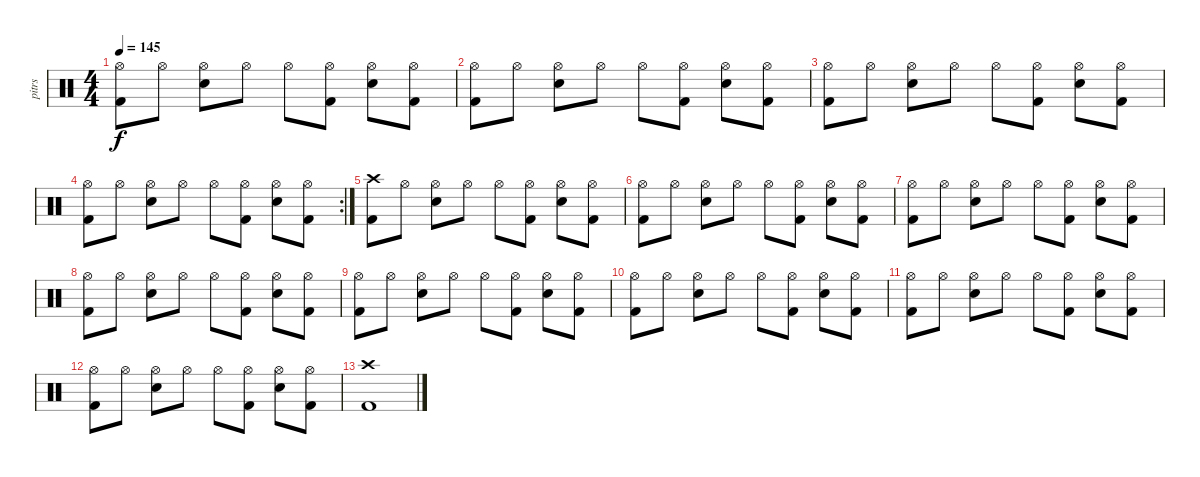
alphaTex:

\track ("pitrs" "pitrs") {instrument percussion}
\staff {score}
\articulation defaults
\ts (4 4)
\tempo 145
\clef neutral
\ks c
("Hi-Hat (open)" "Kick (hit) 2").8{dy f} "Hi-Hat (open)".8 ("Hi-Hat (open)" "Snare (hit) 2").8 "Hi-Hat (open)".8 "Hi-Hat (open)".8 ("Hi-Hat (open)" "Kick (hit) 2").8 ("Hi-Hat (open)" "Snare (hit) 2").8 ("Hi-Hat (open)" "Kick (hit) 2").8 |
("Hi-Hat (open)" "Kick (hit) 2").8 "Hi-Hat (open)".8 ("Hi-Hat (open)" "Snare (hit) 2").8 "Hi-Hat (open)".8 "Hi-Hat (open)".8 ("Hi-Hat (open)" "Kick (hit) 2").8 ("Hi-Hat (open)" "Snare (hit) 2").8 ("Hi-Hat (open)" "Kick (hit) 2").8 |
("Hi-Hat (open)" "Kick (hit) 2").8 "Hi-Hat (open)".8 ("Hi-Hat (open)" "Snare (hit) 2").8 "Hi-Hat (open)".8 "Hi-Hat (open)".8 ("Hi-Hat (open)" "Kick (hit) 2").8 ("Hi-Hat (open)" "Snare (hit) 2").8 ("Hi-Hat (open)" "Kick (hit) 2").8 |
\rc 2
("Hi-Hat (open)" "Kick (hit) 2").8 "Hi-Hat (open)".8 ("Hi-Hat (open)" "Snare (hit) 2").8 "Hi-Hat (open)".8 "Hi-Hat (open)".8 ("Hi-Hat (open)" "Kick (hit) 2").8 ("Hi-Hat (open)" "Snare (hit) 2").8 ("Hi-Hat (open)" "Kick (hit) 2").8 |
("Crash high (hit)" "Kick (hit) 2").8 "Hi-Hat (open)".8 ("Hi-Hat (open)" "Snare (hit) 2").8 "Hi-Hat (open)".8 "Hi-Hat (open)".8 ("Hi-Hat (open)" "Kick (hit) 2").8 ("Hi-Hat (open)" "Snare (hit) 2").8 ("Hi-Hat (open)" "Kick (hit) 2").8 |
("Hi-Hat (open)" "Kick (hit) 2").8 "Hi-Hat (open)".8 ("Hi-Hat (open)" "Snare (hit) 2").8 "Hi-Hat (open)".8 "Hi-Hat (open)".8 ("Hi-Hat (open)" "Kick (hit) 2").8 ("Hi-Hat (open)" "Snare (hit) 2").8 ("Hi-Hat (open)" "Kick (hit) 2").8 |
("Hi-Hat (open)" "Kick (hit) 2").8 "Hi-Hat (open)".8 ("Hi-Hat (open)" "Snare (hit) 2").8 "Hi-Hat (open)".8 "Hi-Hat (open)".8 ("Hi-Hat (open)" "Kick (hit) 2").8 ("Hi-Hat (open)" "Snare (hit) 2").8 ("Hi-Hat (open)" "Kick (hit) 2").8 |
("Hi-Hat (open)" "Kick (hit) 2").8 "Hi-Hat (open)".8 ("Hi-Hat (open)" "Snare (hit) 2").8 "Hi-Hat (open)".8 "Hi-Hat (open)".8 ("Hi-Hat (open)" "Kick (hit) 2").8 ("Hi-Hat (open)" "Snare (hit) 2").8 ("Hi-Hat (open)" "Kick (hit) 2").8 |
("Hi-Hat (open)" "Kick (hit) 2").8 "Hi-Hat (open)".8 ("Hi-Hat (open)" "Snare (hit) 2").8 "Hi-Hat (open)".8 "Hi-Hat (open)".8 ("Hi-Hat (open)" "Kick (hit) 2").8 ("Hi-Hat (open)" "Snare (hit) 2").8 ("Hi-Hat (open)" "Kick (hit) 2").8 |
("Hi-Hat (open)" "Kick (hit) 2").8 "Hi-Hat (open)".8 ("Hi-Hat (open)" "Snare (hit) 2").8 "Hi-Hat (open)".8 "Hi-Hat (open)".8 ("Hi-Hat (open)" "Kick (hit) 2").8 ("Hi-Hat (open)" "Snare (hit) 2").8 ("Hi-Hat (open)" "Kick (hit) 2").8 |
("Hi-Hat (open)" "Kick (hit) 2").8 "Hi-Hat (open)".8 ("Hi-Hat (open)" "Snare (hit) 2").8 "Hi-Hat (open)".8 "Hi-Hat (open)".8 ("Hi-Hat (open)" "Kick (hit) 2").8 ("Hi-Hat (open)" "Snare (hit) 2").8 ("Hi-Hat (open)" "Kick (hit) 2").8 |
("Hi-Hat (open)" "Kick (hit) 2").8 "Hi-Hat (open)".8 ("Hi-Hat (open)" "Snare (hit) 2").8 "Hi-Hat (open)".8 "Hi-Hat (open)".8 ("Hi-Hat (open)" "Kick (hit) 2").8 ("Hi-Hat (open)" "Snare (hit) 2").8 ("Hi-Hat (open)" "Kick (hit) 2").8 |
("Crash high (hit)" "Kick (hit) 2").1
